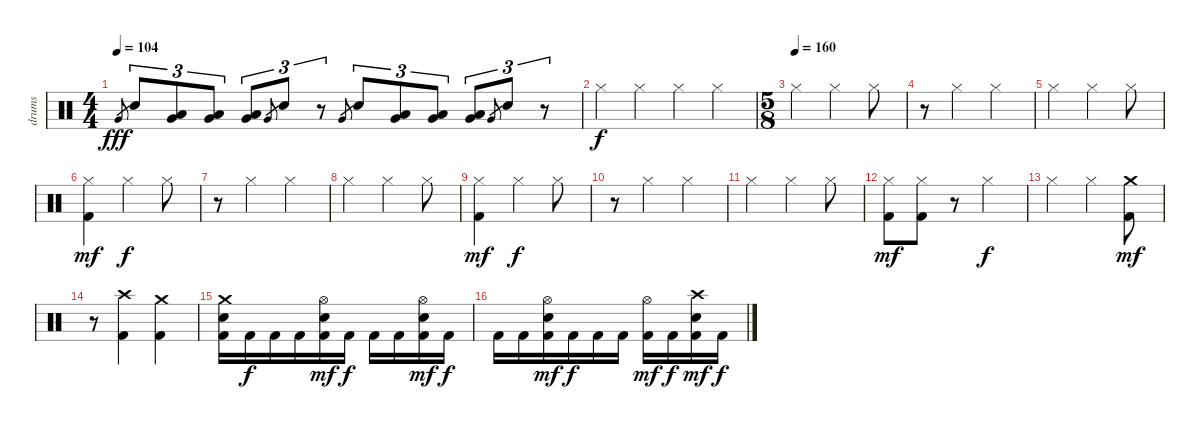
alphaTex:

\track ("drums" "drums") {instrument percussion}
\staff {score}
\articulation defaults
\ts (4 4)
\tempo 104
\clef neutral
\ks c "Very Low Tom (hit)".8{gr dy fff} "Snare (hit) 2".8{tu (3 2)}
("Low Tom (hit)" "Very Low Tom (hit)").8{tu (3 2)} ("Low Tom (hit)" "Very Low Tom (hit)").8{tu (3 2)} ("Low Tom (hit)" "Very Low Tom (hit)").8{tu (3 2)} "Very Low Tom (hit)".8{gr} "Snare (hit) 2".8{tu (3 2)} r.8{tu (3 2)} "Very Low Tom (hit)".8{gr} "Snare (hit) 2".8{tu (3 2)} ("Low Tom (hit)" "Very Low Tom (hit)").8{tu (3 2)} ("Low Tom (hit)" "Very Low Tom (hit)").8{tu (3 2)} ("Low Tom (hit)" "Very Low Tom (hit)").8{tu (3 2)} "Very Low Tom (hit)".8{gr} "Snare (hit) 2".8{tu (3 2)} r.8{tu (3 2)} |
"Hi-Hat (closed)".4{dy f} "Hi-Hat (closed)".4 "Hi-Hat (closed)".4 "Hi-Hat (closed)".4 |
\ts (5 8)
\tempo (160)
"Hi-Hat (closed)".4 "Hi-Hat (closed)".4 "Hi-Hat (closed)".8 |
r.8 "Hi-Hat (closed)".4 "Hi-Hat (closed)".4 |
"Hi-Hat (closed)".4 "Hi-Hat (closed)".4 "Hi-Hat (closed)".8 |
("Hi-Hat (closed)" "Kick (hit) 2").4{dy mf} "Hi-Hat (closed)".4{dy f} "Hi-Hat (closed)".8 |
r.8 "Hi-Hat (closed)".4 "Hi-Hat (closed)".4 |
"Hi-Hat (closed)".4 "Hi-Hat (closed)".4 "Hi-Hat (closed)".8 |
("Hi-Hat (closed)" "Kick (hit) 2").4{dy mf} "Hi-Hat (closed)".4{dy f} "Hi-Hat (closed)".8 |
r.8 "Hi-Hat (closed)".4 "Hi-Hat (closed)".4 |
"Hi-Hat (closed)".4 "Hi-Hat (closed)".4 "Hi-Hat (closed)".8 |
("Hi-Hat (closed)" "Kick (hit) 2").8{dy mf} ("Hi-Hat (closed)" "Kick (hit) 2").8 r.8 "Hi-Hat (closed)".4{dy f} |
"Hi-Hat (closed)".4 "Hi-Hat (closed)".4 ("Crash medium (hit)" "Kick (hit) 2").8{dy mf} |
r.8 ("Crash high (hit)" "Kick (hit) 2").4 ("Crash medium (hit)" "Kick (hit) 2").4 |
("Crash medium (hit)" "Snare (hit) 2" "Kick (hit) 2").16 "Kick (hit) 2".16{dy f} "Kick (hit) 2".16 "Kick (hit) 2".16 ("Hi-Hat (open)" "Snare (hit) 2" "Kick (hit) 2").16{dy mf} "Kick (hit) 2".16{dy f} "Kick (hit) 2".16 "Kick (hit) 2".16 ("Hi-Hat (open)" "Snare (hit) 2" "Kick (hit) 2").16{dy mf} "Kick (hit) 2".16{dy f} |
"Kick (hit) 2".16 "Kick (hit) 2".16 ("Hi-Hat (open)" "Snare (hit) 2" "Kick (hit) 2").16{dy mf} "Kick (hit) 2".16{dy f} "Kick (hit) 2".16 "Kick (hit) 2".16 ("Hi-Hat (open)" "Kick (hit) 2").16{dy mf} "Kick (hit) 2".16{dy f} ("Crash high (hit)" "Snare (hit) 2" "Kick (hit) 2").16{dy mf} "Kick (hit) 2".16{dy f}
